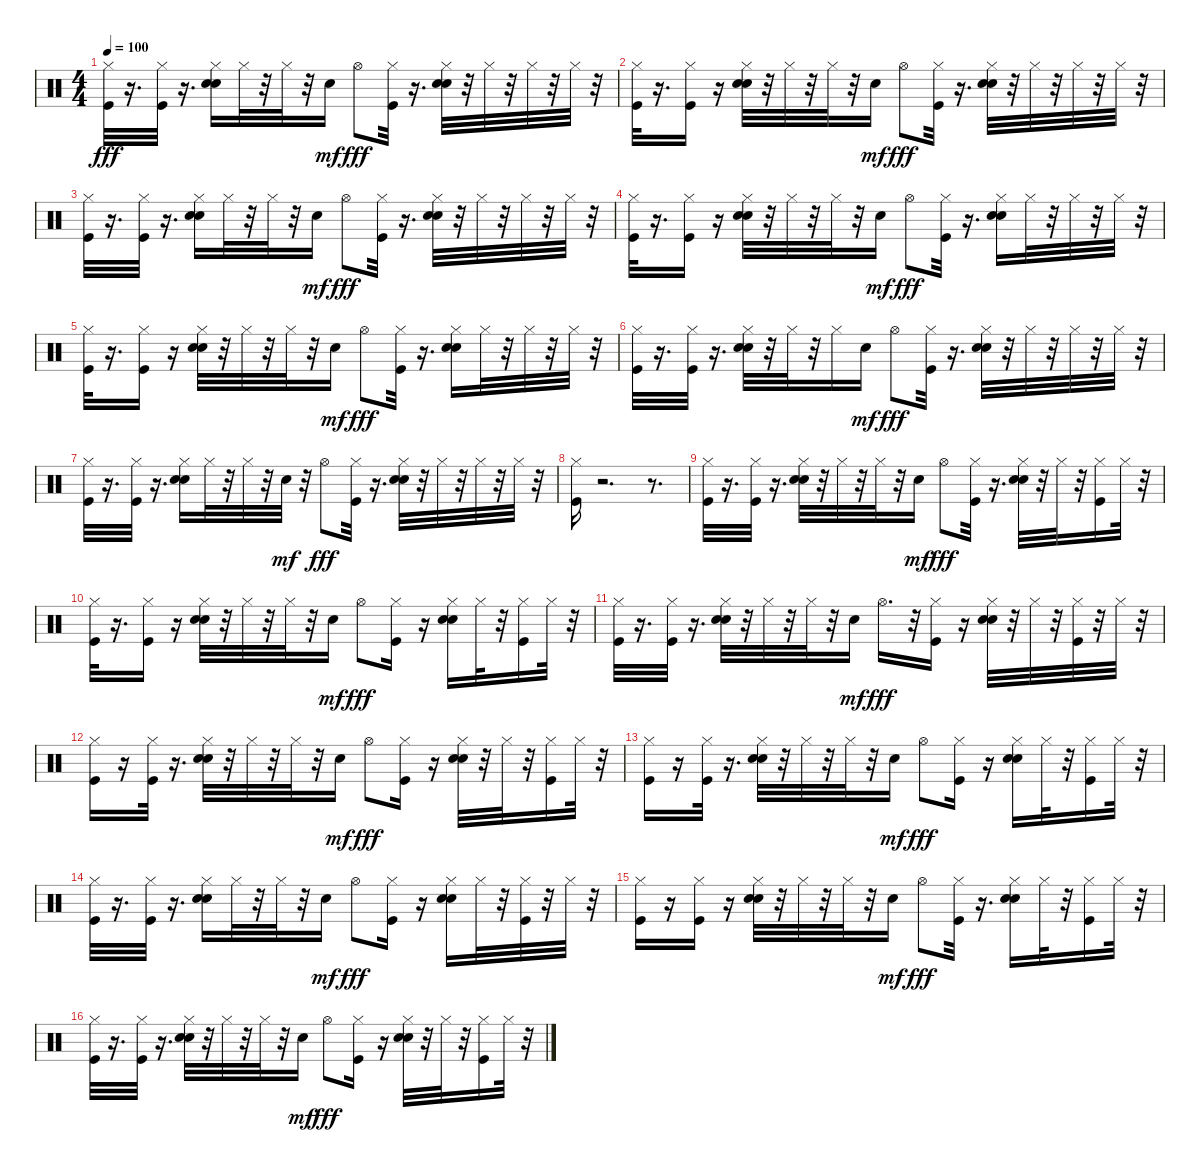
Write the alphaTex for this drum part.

\track "" {instrument percussion}
\staff {score}
\articulation defaults
\ts (4 4)
\tempo 100
\clef neutral
\ks c
("Hi-Hat (closed)" "Kick (hit)").32{dy fff} r.16{d} ("Hi-Hat (closed)" "Kick (hit)").32 r.16{d} ("Hi-Hat (closed)" "Hand Clap (hit)" "Snare (hit) 2").16 "Hi-Hat (closed)".32 r.32 "Hi-Hat (closed)".32 r.32 "Electric Snare (hit)".16{dy mf} "Hi-Hat (open)".8{dy fff} ("Hi-Hat (closed)" "Kick (hit)").32 r.16{d} ("Hi-Hat (closed)" "Hand Clap (hit)" "Snare (hit) 2").32 r.32 "Hi-Hat (closed)".32 r.32 "Hi-Hat (closed)".32 r.32 "Hi-Hat (closed)".32 r.32 |
("Hi-Hat (closed)" "Kick (hit)").32 r.16{d} ("Hi-Hat (closed)" "Kick (hit)").16 r.16 ("Hi-Hat (closed)" "Hand Clap (hit)" "Snare (hit) 2").32 r.32 "Hi-Hat (closed)".32 r.32 "Hi-Hat (closed)".32 r.32 "Electric Snare (hit)".16{dy mf} "Hi-Hat (open)".8{dy fff} ("Hi-Hat (closed)" "Kick (hit)").32 r.16{d} ("Hi-Hat (closed)" "Hand Clap (hit)" "Snare (hit) 2").32 r.32 "Hi-Hat (closed)".32 r.32 "Hi-Hat (closed)".32 r.32 "Hi-Hat (closed)".32 r.32 |
("Hi-Hat (closed)" "Kick (hit)").32 r.16{d} ("Hi-Hat (closed)" "Kick (hit)").32 r.16{d} ("Hi-Hat (closed)" "Hand Clap (hit)" "Snare (hit) 2").16 "Hi-Hat (closed)".32 r.32 "Hi-Hat (closed)".32 r.32 "Electric Snare (hit)".16{dy mf} "Hi-Hat (open)".8{dy fff} ("Hi-Hat (closed)" "Kick (hit)").32 r.16{d} ("Hi-Hat (closed)" "Hand Clap (hit)" "Snare (hit) 2").32 r.32 "Hi-Hat (closed)".32 r.32 "Hi-Hat (closed)".32 r.32 "Hi-Hat (closed)".32 r.32 |
("Hi-Hat (closed)" "Kick (hit)").32 r.16{d} ("Hi-Hat (closed)" "Kick (hit)").16 r.16 ("Hi-Hat (closed)" "Hand Clap (hit)" "Snare (hit) 2").32 r.32 "Hi-Hat (closed)".32 r.32 "Hi-Hat (closed)".32 r.32 "Electric Snare (hit)".16{dy mf} "Hi-Hat (open)".8{dy fff} ("Hi-Hat (closed)" "Kick (hit)").32 r.16{d} ("Hi-Hat (closed)" "Hand Clap (hit)" "Snare (hit) 2").16 "Hi-Hat (closed)".32 r.32 "Hi-Hat (closed)".32 r.32 "Hi-Hat (closed)".32 r.32 |
("Hi-Hat (closed)" "Kick (hit)").32 r.16{d} ("Hi-Hat (closed)" "Kick (hit)").16 r.16 ("Hi-Hat (closed)" "Hand Clap (hit)" "Snare (hit) 2").32 r.32 "Hi-Hat (closed)".32 r.32 "Hi-Hat (closed)".32 r.32 "Electric Snare (hit)".16{dy mf} "Hi-Hat (open)".8{dy fff} ("Hi-Hat (closed)" "Kick (hit)").32 r.16{d} ("Hi-Hat (closed)" "Hand Clap (hit)" "Snare (hit) 2").16 "Hi-Hat (closed)".32 r.32 "Hi-Hat (closed)".32 r.32 "Hi-Hat (closed)".32 r.32 |
("Hi-Hat (closed)" "Kick (hit)").32 r.16{d} ("Hi-Hat (closed)" "Kick (hit)").32 r.16{d} ("Hi-Hat (closed)" "Hand Clap (hit)" "Snare (hit) 2").32 r.32 "Hi-Hat (closed)".32 r.32 "Hi-Hat (closed)".16 "Electric Snare (hit)".16{dy mf} "Hi-Hat (open)".8{dy fff} ("Hi-Hat (closed)" "Kick (hit)").32 r.16{d} ("Hi-Hat (closed)" "Hand Clap (hit)" "Snare (hit) 2").32 r.32 "Hi-Hat (closed)".32 r.32 "Hi-Hat (closed)".32 r.32 "Hi-Hat (closed)".32 r.32 |
("Hi-Hat (closed)" "Kick (hit)").32 r.16{d} ("Hi-Hat (closed)" "Kick (hit)").32 r.16{d} ("Hi-Hat (closed)" "Hand Clap (hit)" "Snare (hit) 2").16 "Hi-Hat (closed)".32 r.32 "Hi-Hat (closed)".32 r.32 "Electric Snare (hit)".32{dy mf} r.32 "Hi-Hat (open)".8{dy fff} ("Hi-Hat (closed)" "Kick (hit)").32 r.16{d} ("Hi-Hat (closed)" "Hand Clap (hit)" "Snare (hit) 2").32 r.32 "Hi-Hat (closed)".32 r.32 "Hi-Hat (closed)".32 r.32 "Hi-Hat (closed)".32 r.32 |
("Hi-Hat (closed)" "Kick (hit)").16 r.2{d} r.8{d} |
("Hi-Hat (closed)" "Kick (hit)").32 r.16{d} ("Hi-Hat (closed)" "Kick (hit)").32 r.16{d} ("Hi-Hat (closed)" "Hand Clap (hit)" "Snare (hit) 2").32 r.32 "Hi-Hat (closed)".32 r.32 "Hi-Hat (closed)".32 r.32 "Electric Snare (hit)".16{dy mf} "Hi-Hat (open)".8{dy fff} ("Hi-Hat (closed)" "Kick (hit)").32 r.16{d} ("Hi-Hat (closed)" "Hand Clap (hit)" "Snare (hit) 2").32 r.32 "Hi-Hat (closed)".32 r.32 ("Hi-Hat (closed)" "Kick (hit)").16 "Hi-Hat (closed)".32 r.32 |
("Hi-Hat (closed)" "Kick (hit)").32 r.16{d} ("Hi-Hat (closed)" "Kick (hit)").16 r.16 ("Hi-Hat (closed)" "Snare (hit) 2" "Hand Clap (hit)").32 r.32 "Hi-Hat (closed)".32 r.32 "Hi-Hat (closed)".32 r.32 "Electric Snare (hit)".16{dy mf} "Hi-Hat (open)".8{dy fff} ("Hi-Hat (closed)" "Kick (hit)").16 r.16 ("Hi-Hat (closed)" "Hand Clap (hit)" "Snare (hit) 2").16 "Hi-Hat (closed)".32 r.32 ("Hi-Hat (closed)" "Kick (hit)").16 "Hi-Hat (closed)".32 r.32 |
("Hi-Hat (closed)" "Kick (hit)").32 r.16{d} ("Hi-Hat (closed)" "Kick (hit)").32 r.16{d} ("Hi-Hat (closed)" "Snare (hit) 2" "Hand Clap (hit)").32 r.32 "Hi-Hat (closed)".32 r.32 "Hi-Hat (closed)".32 r.32 "Electric Snare (hit)".16{dy mf} "Hi-Hat (open)".16{d dy fff} r.32 ("Hi-Hat (closed)" "Kick (hit)").16 r.16 ("Hi-Hat (closed)" "Snare (hit) 2" "Hand Clap (hit)").32 r.32 "Hi-Hat (closed)".32 r.32 ("Hi-Hat (closed)" "Kick (hit)").32 r.32 "Hi-Hat (closed)".32 r.32 |
("Hi-Hat (closed)" "Kick (hit)").16 r.16 ("Hi-Hat (closed)" "Kick (hit)").32 r.16{d} ("Hi-Hat (closed)" "Hand Clap (hit)" "Snare (hit) 2").32 r.32 "Hi-Hat (closed)".32 r.32 "Hi-Hat (closed)".32 r.32 "Electric Snare (hit)".16{dy mf} "Hi-Hat (open)".8{dy fff} ("Hi-Hat (closed)" "Kick (hit)").16 r.16 ("Hi-Hat (closed)" "Hand Clap (hit)" "Snare (hit) 2").32 r.32 "Hi-Hat (closed)".32 r.32 ("Hi-Hat (closed)" "Kick (hit)").16 "Hi-Hat (closed)".32 r.32 |
("Hi-Hat (closed)" "Kick (hit)").16 r.16 ("Hi-Hat (closed)" "Kick (hit)").32 r.16{d} ("Hi-Hat (closed)" "Snare (hit) 2" "Hand Clap (hit)").32 r.32 "Hi-Hat (closed)".32 r.32 "Hi-Hat (closed)".32 r.32 "Electric Snare (hit)".16{dy mf} "Hi-Hat (open)".8{dy fff} ("Hi-Hat (closed)" "Kick (hit)").16 r.16 ("Hi-Hat (closed)" "Hand Clap (hit)" "Snare (hit) 2").16 "Hi-Hat (closed)".32 r.32 ("Hi-Hat (closed)" "Kick (hit)").16 "Hi-Hat (closed)".32 r.32 |
("Hi-Hat (closed)" "Kick (hit)").32 r.16{d} ("Hi-Hat (closed)" "Kick (hit)").32 r.16{d} ("Hi-Hat (closed)" "Hand Clap (hit)" "Snare (hit) 2").16 "Hi-Hat (closed)".32 r.32 "Hi-Hat (closed)".32 r.32 "Electric Snare (hit)".16{dy mf} "Hi-Hat (open)".8{dy fff} ("Hi-Hat (closed)" "Kick (hit)").16 r.16 ("Hi-Hat (closed)" "Hand Clap (hit)" "Snare (hit) 2").16 "Hi-Hat (closed)".32 r.32 ("Hi-Hat (closed)" "Kick (hit)").32 r.32 "Hi-Hat (closed)".32 r.32 |
("Hi-Hat (closed)" "Kick (hit)").16 r.16 ("Hi-Hat (closed)" "Kick (hit)").16 r.16 ("Hi-Hat (closed)" "Hand Clap (hit)" "Snare (hit) 2").32 r.32 "Hi-Hat (closed)".32 r.32 "Hi-Hat (closed)".32 r.32 "Electric Snare (hit)".16{dy mf} "Hi-Hat (open)".8{dy fff} ("Hi-Hat (closed)" "Kick (hit)").32 r.16{d} ("Hi-Hat (closed)" "Hand Clap (hit)" "Snare (hit) 2").16 "Hi-Hat (closed)".32 r.32 ("Hi-Hat (closed)" "Kick (hit)").16 "Hi-Hat (closed)".32 r.32 |
("Hi-Hat (closed)" "Kick (hit)").32 r.16{d} ("Hi-Hat (closed)" "Kick (hit)").32 r.16{d} ("Hi-Hat (closed)" "Hand Clap (hit)" "Snare (hit) 2").32 r.32 "Hi-Hat (closed)".32 r.32 "Hi-Hat (closed)".32 r.32 "Electric Snare (hit)".16{dy mf} "Hi-Hat (open)".8{dy fff} ("Hi-Hat (closed)" "Kick (hit)").16 r.16 ("Hi-Hat (closed)" "Hand Clap (hit)" "Snare (hit) 2").32 r.32 "Hi-Hat (closed)".32 r.32 ("Hi-Hat (closed)" "Kick (hit)").16 "Hi-Hat (closed)".32 r.32
